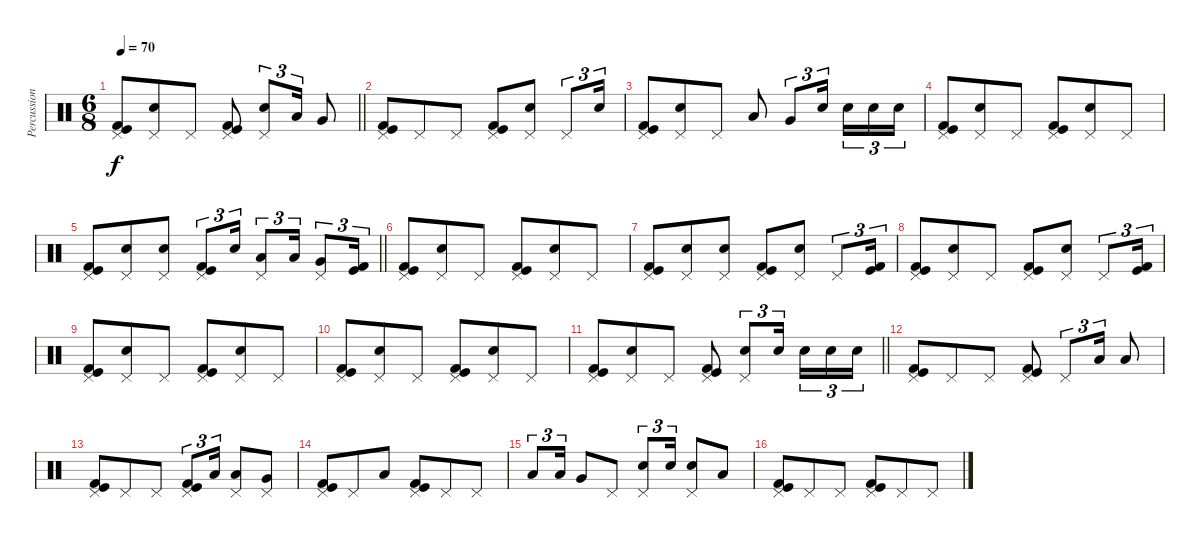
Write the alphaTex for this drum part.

\track ("Percussion" "Percussion") {instrument percussion}
\staff {score}
\articulation defaults
\ts (6 8)
\tempo 70
\clef neutral
\barLineRight lightlight
\ks c
("Pedal Hi-Hat (hit)" "Kick (hit)" "Kick (hit) 2").8{dy f} ("Pedal Hi-Hat (hit)" "Electric Snare (hit)").8 "Pedal Hi-Hat (hit)".8 ("Pedal Hi-Hat (hit)" "Kick (hit)" "Kick (hit) 2").8 ("Pedal Hi-Hat (hit)" "Electric Snare (hit)").8{tu (3 2)} "Low Tom (hit)".16{tu (3 2)} "Very Low Tom (hit)".8 |
\section ("" "")
("Pedal Hi-Hat (hit)" "Kick (hit)" "Kick (hit) 2").8 "Pedal Hi-Hat (hit)".8 "Pedal Hi-Hat (hit)".8 ("Pedal Hi-Hat (hit)" "Kick (hit)" "Kick (hit) 2").8 ("Pedal Hi-Hat (hit)" "Electric Snare (hit)").8 "Pedal Hi-Hat (hit)".8{tu (3 2)} "Electric Snare (hit)".16{tu (3 2)} |
("Pedal Hi-Hat (hit)" "Kick (hit)" "Kick (hit) 2").8 ("Pedal Hi-Hat (hit)" "Electric Snare (hit)").8 "Pedal Hi-Hat (hit)".8 "Low Tom (hit)".8 "Very Low Tom (hit)".8{tu (3 2)} "Electric Snare (hit)".16{tu (3 2) beam splitsecondary} "Electric Snare (hit)".16{tu (3 2)} "Electric Snare (hit)".16{tu (3 2)} "Electric Snare (hit)".16{tu (3 2)} |
("Pedal Hi-Hat (hit)" "Kick (hit)" "Kick (hit) 2").8 ("Pedal Hi-Hat (hit)" "Electric Snare (hit)").8 "Pedal Hi-Hat (hit)".8 ("Pedal Hi-Hat (hit)" "Kick (hit)" "Kick (hit) 2").8 ("Pedal Hi-Hat (hit)" "Electric Snare (hit)").8 "Pedal Hi-Hat (hit)".8 |
\barLineRight lightlight
("Pedal Hi-Hat (hit)" "Kick (hit)" "Kick (hit) 2").8 ("Pedal Hi-Hat (hit)" "Electric Snare (hit)").8 ("Pedal Hi-Hat (hit)" "Electric Snare (hit)").8 ("Pedal Hi-Hat (hit)" "Kick (hit)" "Kick (hit) 2").8{tu (3 2)} "Electric Snare (hit)".16{tu (3 2)} ("Pedal Hi-Hat (hit)" "Low Tom (hit)").8{tu (3 2)} "Low Tom (hit)".16{tu (3 2)} ("Pedal Hi-Hat (hit)" "Very Low Tom (hit)").8{tu (3 2)} ("Kick (hit)" "Kick (hit) 2").16{tu (3 2)} |
\section ("" "")
("Pedal Hi-Hat (hit)" "Kick (hit)" "Kick (hit) 2").8 ("Pedal Hi-Hat (hit)" "Electric Snare (hit)").8 "Pedal Hi-Hat (hit)".8 ("Pedal Hi-Hat (hit)" "Kick (hit)" "Kick (hit) 2").8 ("Pedal Hi-Hat (hit)" "Electric Snare (hit)").8 "Pedal Hi-Hat (hit)".8 |
("Pedal Hi-Hat (hit)" "Kick (hit)" "Kick (hit) 2").8 ("Pedal Hi-Hat (hit)" "Electric Snare (hit)").8 ("Pedal Hi-Hat (hit)" "Electric Snare (hit)").8 ("Pedal Hi-Hat (hit)" "Kick (hit)" "Kick (hit) 2").8 ("Pedal Hi-Hat (hit)" "Electric Snare (hit)").8 "Pedal Hi-Hat (hit)".8{tu (3 2)} ("Kick (hit)" "Kick (hit) 2").16{tu (3 2)} |
("Pedal Hi-Hat (hit)" "Kick (hit)" "Kick (hit) 2").8 ("Pedal Hi-Hat (hit)" "Electric Snare (hit)").8 "Pedal Hi-Hat (hit)".8 ("Pedal Hi-Hat (hit)" "Kick (hit)" "Kick (hit) 2").8 ("Pedal Hi-Hat (hit)" "Electric Snare (hit)").8 "Pedal Hi-Hat (hit)".8{tu (3 2)} ("Kick (hit)" "Kick (hit) 2").16{tu (3 2)} |
("Pedal Hi-Hat (hit)" "Kick (hit)" "Kick (hit) 2").8 ("Pedal Hi-Hat (hit)" "Electric Snare (hit)").8 "Pedal Hi-Hat (hit)".8 ("Pedal Hi-Hat (hit)" "Kick (hit)" "Kick (hit) 2").8 ("Pedal Hi-Hat (hit)" "Electric Snare (hit)").8 "Pedal Hi-Hat (hit)".8 |
("Pedal Hi-Hat (hit)" "Kick (hit)" "Kick (hit) 2").8 ("Pedal Hi-Hat (hit)" "Electric Snare (hit)").8 "Pedal Hi-Hat (hit)".8 ("Pedal Hi-Hat (hit)" "Kick (hit)" "Kick (hit) 2").8 ("Pedal Hi-Hat (hit)" "Electric Snare (hit)").8 "Pedal Hi-Hat (hit)".8 |
\barLineRight lightlight
("Pedal Hi-Hat (hit)" "Kick (hit)" "Kick (hit) 2").8 ("Pedal Hi-Hat (hit)" "Electric Snare (hit)").8 "Pedal Hi-Hat (hit)".8 ("Pedal Hi-Hat (hit)" "Kick (hit)" "Kick (hit) 2").8 ("Pedal Hi-Hat (hit)" "Electric Snare (hit)").8{tu (3 2)} "Electric Snare (hit)".16{tu (3 2) beam splitsecondary} "Electric Snare (hit)".16{tu (3 2)} "Electric Snare (hit)".16{tu (3 2)} "Electric Snare (hit)".16{tu (3 2)} |
\section ("" "")
("Pedal Hi-Hat (hit)" "Kick (hit)" "Kick (hit) 2").8 "Pedal Hi-Hat (hit)".8 "Pedal Hi-Hat (hit)".8 ("Pedal Hi-Hat (hit)" "Kick (hit)" "Kick (hit) 2").8 "Pedal Hi-Hat (hit)".8{tu (3 2)} "Low Tom (hit)".16{tu (3 2)} "Low Tom (hit)".8 |
("Pedal Hi-Hat (hit)" "Kick (hit)" "Kick (hit) 2").8 "Pedal Hi-Hat (hit)".8 "Pedal Hi-Hat (hit)".8 ("Pedal Hi-Hat (hit)" "Kick (hit)" "Kick (hit) 2").8{tu (3 2)} "Low Tom (hit)".16{tu (3 2)} ("Pedal Hi-Hat (hit)" "Low Tom (hit)").8 ("Pedal Hi-Hat (hit)" "Very Low Tom (hit)").8 |
("Pedal Hi-Hat (hit)" "Kick (hit)" "Kick (hit) 2").8 "Pedal Hi-Hat (hit)".8 "Low Tom (hit)".8 ("Pedal Hi-Hat (hit)" "Kick (hit)" "Kick (hit) 2").8 "Pedal Hi-Hat (hit)".8 "Pedal Hi-Hat (hit)".8 |
"Low Tom (hit)".8{tu (3 2)} "Low Tom (hit)".16{tu (3 2)} "Very Low Tom (hit)".8 "Pedal Hi-Hat (hit)".8 ("Pedal Hi-Hat (hit)" "Electric Snare (hit)").8{tu (3 2)} "Electric Snare (hit)".16{tu (3 2)} ("Pedal Hi-Hat (hit)" "Electric Snare (hit)").8 "Low Tom (hit)".8 |
("Pedal Hi-Hat (hit)" "Kick (hit)" "Kick (hit) 2").8 "Pedal Hi-Hat (hit)".8 "Pedal Hi-Hat (hit)".8 ("Pedal Hi-Hat (hit)" "Kick (hit)" "Kick (hit) 2").8 "Pedal Hi-Hat (hit)".8 "Pedal Hi-Hat (hit)".8
